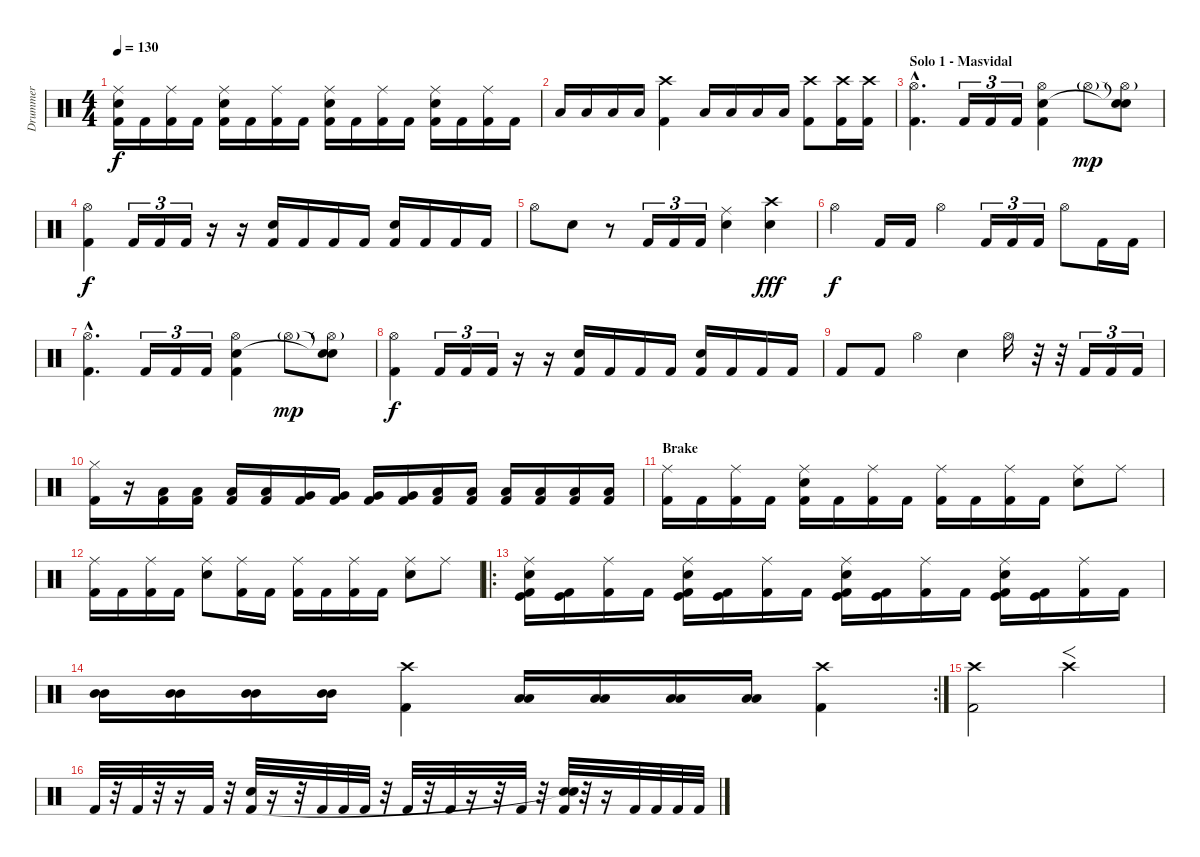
\track ("Drummer" "Drummer") {instrument percussion}
\staff {score}
\articulation defaults
\ts (4 4)
\tempo 130
\clef neutral
\ks c
("Ride (middle)" "Snare (hit) 2" "Kick (hit) 2").16{dy f} "Kick (hit) 2".16 ("Ride (middle)" "Kick (hit) 2").16 "Kick (hit) 2".16 ("Ride (middle)" "Snare (hit) 2" "Kick (hit) 2").16 "Kick (hit) 2".16 ("Ride (middle)" "Kick (hit) 2").16 "Kick (hit) 2".16 ("Ride (middle)" "Snare (hit) 2" "Kick (hit) 2").16 "Kick (hit) 2".16 ("Ride (middle)" "Kick (hit) 2").16 "Kick (hit) 2".16 ("Ride (middle)" "Snare (hit) 2" "Kick (hit) 2").16 "Kick (hit) 2".16 ("Ride (middle)" "Kick (hit) 2").16 "Kick (hit) 2".16 |
"Low Tom (hit)".16 "Low Tom (hit)".16 "Low Tom (hit)".16 "Low Tom (hit)".16 ("Crash high (hit)" "Kick (hit) 2").4 "Low Tom (hit)".16 "Low Tom (hit)".16 "Low Tom (hit)".16 "Low Tom (hit)".16 ("Crash high (hit)" "Kick (hit) 2").8 ("Crash high (hit)" "Kick (hit) 2").16 ("Crash high (hit)" "Kick (hit) 2").16 |
\section ("" "Solo 1 - Masvidal")
("Hi-Hat (open)"{hac} "Kick (hit) 2"{hac}).4{d} "Kick (hit) 2".16{tu (3 2)} "Kick (hit) 2".16{tu (3 2)} "Kick (hit) 2".16{tu (3 2)} ("Kick (hit) 2" "Snare (hit) 2" "Hi-Hat (open)").4 "Hi-Hat (open)"{g}.8{dy mp} ("Snare (hit)"{t} "Snare (hit)"{t} "Hi-Hat (open)"{g}).8 |
("Hi-Hat (open)" "Kick (hit) 2").4{dy f} "Kick (hit) 2".16{tu (3 2)} "Kick (hit) 2".16{tu (3 2)} "Kick (hit) 2".16{tu (3 2)} r.16 r.16 ("Snare (hit) 2" "Kick (hit) 2").16 "Kick (hit) 2".16 "Kick (hit) 2".16 "Kick (hit) 2".16 ("Snare (hit) 2" "Kick (hit) 2").16 "Kick (hit) 2".16 "Kick (hit) 2".16 "Kick (hit) 2".16 |
"Hi-Hat (open)".8 "Snare (hit) 2".8 r.8 "Kick (hit) 2".16{tu (3 2)} "Kick (hit) 2".16{tu (3 2)} "Kick (hit) 2".16{tu (3 2)} ("Ride (middle)" "Snare (hit) 2").4 ("Crash high (hit)" "Snare (hit) 2").4{dy fff} |
"Hi-Hat (open)".4{dy f} "Kick (hit) 2".16 "Kick (hit) 2".16 "Hi-Hat (open)".4 "Kick (hit) 2".16{tu (3 2)} "Kick (hit) 2".16{tu (3 2)} "Kick (hit) 2".16{tu (3 2)} "Hi-Hat (open)".8 "Kick (hit) 2".16 "Kick (hit) 2".16 |
("Hi-Hat (open)"{hac} "Kick (hit) 2"{hac}).4{d} "Kick (hit) 2".16{tu (3 2)} "Kick (hit) 2".16{tu (3 2)} "Kick (hit) 2".16{tu (3 2)} ("Kick (hit) 2" "Snare (hit) 2" "Hi-Hat (open)").4 "Hi-Hat (open)"{g}.8{dy mp} ("Snare (hit)"{t} "Snare (hit)"{t} "Hi-Hat (open)"{g}).8 |
("Hi-Hat (open)" "Kick (hit) 2").4{dy f} "Kick (hit) 2".16{tu (3 2)} "Kick (hit) 2".16{tu (3 2)} "Kick (hit) 2".16{tu (3 2)} r.16 r.16 ("Snare (hit) 2" "Kick (hit) 2").16 "Kick (hit) 2".16 "Kick (hit) 2".16 "Kick (hit) 2".16 ("Snare (hit) 2" "Kick (hit) 2").16 "Kick (hit) 2".16 "Kick (hit) 2".16 "Kick (hit) 2".16 |
"Kick (hit) 2".8 "Kick (hit) 2".8 "Hi-Hat (open)".4 "Snare (hit) 2".4 "Hi-Hat (open)".16 r.32 r.32 "Kick (hit) 2".16{tu (3 2)} "Kick (hit) 2".16{tu (3 2)} "Kick (hit) 2".16{tu (3 2)} |
("Hi-Hat (closed)" "Kick (hit) 2").16 r.16 ("Kick (hit) 2" "Low Tom (hit)").16 ("Kick (hit) 2" "Low Tom (hit)").16 ("Kick (hit) 2" "Low Tom (hit)").16 ("Kick (hit) 2" "Low Tom (hit)").16 ("Kick (hit) 2" "Very Low Tom (hit)").16 ("Kick (hit) 2" "Very Low Tom (hit)").16 ("Kick (hit) 2" "Very Low Tom (hit)").16 ("Kick (hit) 2" "Very Low Tom (hit)").16 ("Kick (hit) 2" "Low Floor Tom (hit)").16 ("Kick (hit) 2" "Low Floor Tom (hit)").16 ("Kick (hit) 2" "Low Floor Tom (hit)").16 ("Kick (hit) 2" "Low Floor Tom (hit)").16 ("Kick (hit) 2" "Low Floor Tom (hit)").16 ("Kick (hit) 2" "Low Floor Tom (hit)").16 |
\section ("" "Brake")
("Ride (middle)" "Kick (hit) 2").16 "Kick (hit) 2".16 ("Ride (middle)" "Kick (hit) 2").16 "Kick (hit) 2".16 ("Ride (middle)" "Snare (hit) 2" "Kick (hit) 2").16 "Kick (hit) 2".16 ("Ride (middle)" "Kick (hit) 2").16 "Kick (hit) 2".16 ("Ride (middle)" "Kick (hit) 2").16 "Kick (hit) 2".16 ("Ride (middle)" "Kick (hit) 2").16 "Kick (hit) 2".16 ("Ride (middle)" "Snare (hit) 2").8 "Ride (middle)".8 |
("Ride (middle)" "Kick (hit) 2").16 "Kick (hit) 2".16 ("Ride (middle)" "Kick (hit) 2").16 "Kick (hit) 2".16 ("Ride (middle)" "Snare (hit) 2").8 ("Ride (middle)" "Kick (hit) 2").16 "Kick (hit) 2".16 ("Ride (middle)" "Kick (hit) 2").16 "Kick (hit) 2".16 ("Ride (middle)" "Kick (hit) 2").16 "Kick (hit) 2".16 ("Ride (middle)" "Snare (hit) 2").8 "Ride (middle)".8 |
\ro
("Ride (middle)" "Snare (hit) 2" "Kick (hit)" "Kick (hit) 2").16 ("Kick (hit)" "Kick (hit) 2").16 ("Ride (middle)" "Kick (hit) 2").16 "Kick (hit) 2".16 ("Ride (middle)" "Snare (hit) 2" "Kick (hit)" "Kick (hit) 2").16 ("Kick (hit)" "Kick (hit) 2").16 ("Ride (middle)" "Kick (hit) 2").16 "Kick (hit) 2".16 ("Ride (middle)" "Snare (hit) 2" "Kick (hit)" "Kick (hit) 2").16 ("Kick (hit)" "Kick (hit) 2").16 ("Ride (middle)" "Kick (hit) 2").16 "Kick (hit) 2".16 ("Ride (middle)" "Snare (hit) 2" "Kick (hit)" "Kick (hit) 2").16 ("Kick (hit)" "Kick (hit) 2").16 ("Ride (middle)" "Kick (hit) 2").16 "Kick (hit) 2".16 |
\rc 2
("Mid Tom (hit)" "Mid Tom (hit)").16 ("Mid Tom (hit)" "Mid Tom (hit)").16 ("Mid Tom (hit)" "Mid Tom (hit)").16 ("Mid Tom (hit)" "Mid Tom (hit)").16 ("Crash high (hit)" "Kick (hit) 2").4 ("Low Tom (hit)" "Low Tom (hit)").16 ("Low Tom (hit)" "Low Tom (hit)").16 ("Low Tom (hit)" "Low Tom (hit)").16 ("Low Tom (hit)" "Low Tom (hit)").16 ("Crash high (hit)" "Kick (hit) 2").4 |
("Crash high (hit)" "Kick (hit) 2").2 "Crash high (hit)".2{f} |
"Kick (hit) 2".32 r.32 "Kick (hit) 2".32 r.32 r.16 "Kick (hit) 2".32 r.32 ("Snare (hit) 2" "Kick (hit) 2").32 r.16 r.32 "Kick (hit) 2".32 "Kick (hit) 2".32 "Kick (hit) 2".32 r.32 "Kick (hit) 2".32 r.32 "Kick (hit) 2".32 r.16 r.32 "Kick (hit) 2".32 r.32 ("Snare (hit) 2" "Snare (hit)"{t} "Kick (hit) 2").32 r.32 r.16 "Kick (hit) 2".32 "Kick (hit) 2".32 "Kick (hit) 2".32 "Kick (hit) 2".32
